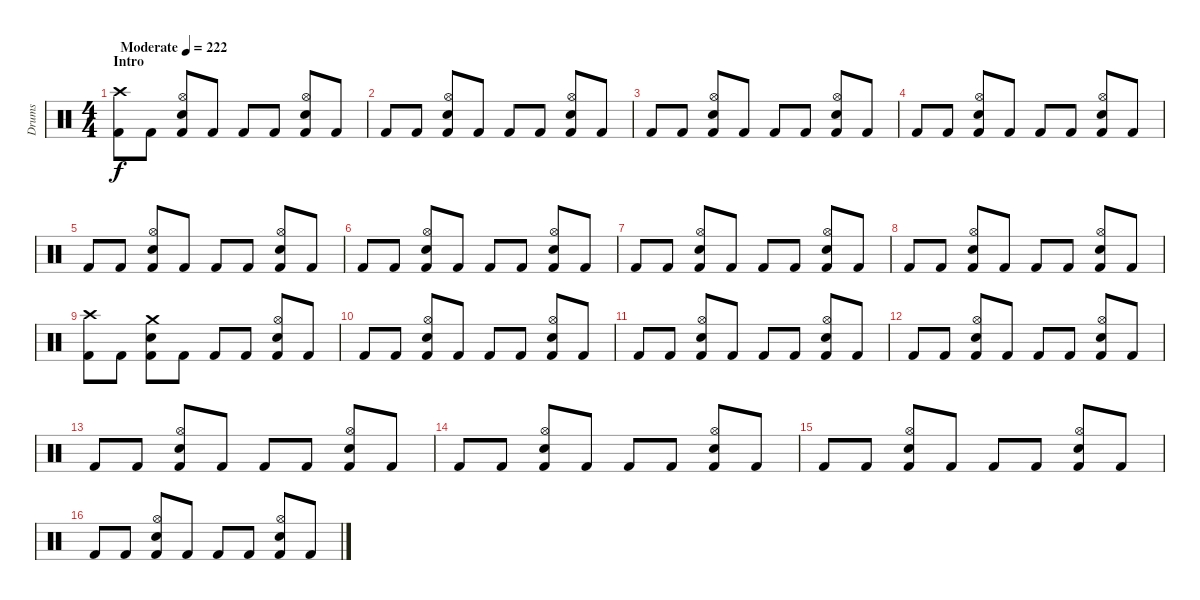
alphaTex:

\track ("Drums" "Drums") {instrument percussion}
\staff {score}
\articulation defaults
\ts (4 4)
\section ("" "Intro")
\tempo (222 "Moderate")
\clef neutral
\ks c
("Crash high (hit)" "Kick (hit) 2").8{dy f} "Kick (hit) 2".8 ("Hi-Hat (open)" "Snare (hit) 2" "Kick (hit) 2").8 "Kick (hit) 2".8 "Kick (hit) 2".8 "Kick (hit) 2".8 ("Hi-Hat (open)" "Snare (hit) 2" "Kick (hit) 2").8 "Kick (hit) 2".8 |
"Kick (hit) 2".8 "Kick (hit) 2".8 ("Hi-Hat (open)" "Snare (hit) 2" "Kick (hit) 2").8 "Kick (hit) 2".8 "Kick (hit) 2".8 "Kick (hit) 2".8 ("Hi-Hat (open)" "Snare (hit) 2" "Kick (hit) 2").8 "Kick (hit) 2".8 |
"Kick (hit) 2".8 "Kick (hit) 2".8 ("Hi-Hat (open)" "Snare (hit) 2" "Kick (hit) 2").8 "Kick (hit) 2".8 "Kick (hit) 2".8 "Kick (hit) 2".8 ("Hi-Hat (open)" "Snare (hit) 2" "Kick (hit) 2").8 "Kick (hit) 2".8 |
"Kick (hit) 2".8 "Kick (hit) 2".8 ("Hi-Hat (open)" "Snare (hit) 2" "Kick (hit) 2").8 "Kick (hit) 2".8 "Kick (hit) 2".8 "Kick (hit) 2".8 ("Hi-Hat (open)" "Snare (hit) 2" "Kick (hit) 2").8 "Kick (hit) 2".8 |
"Kick (hit) 2".8 "Kick (hit) 2".8 ("Hi-Hat (open)" "Snare (hit) 2" "Kick (hit) 2").8 "Kick (hit) 2".8 "Kick (hit) 2".8 "Kick (hit) 2".8 ("Hi-Hat (open)" "Snare (hit) 2" "Kick (hit) 2").8 "Kick (hit) 2".8 |
"Kick (hit) 2".8 "Kick (hit) 2".8 ("Hi-Hat (open)" "Snare (hit) 2" "Kick (hit) 2").8 "Kick (hit) 2".8 "Kick (hit) 2".8 "Kick (hit) 2".8 ("Hi-Hat (open)" "Snare (hit) 2" "Kick (hit) 2").8 "Kick (hit) 2".8 |
"Kick (hit) 2".8 "Kick (hit) 2".8 ("Hi-Hat (open)" "Snare (hit) 2" "Kick (hit) 2").8 "Kick (hit) 2".8 "Kick (hit) 2".8 "Kick (hit) 2".8 ("Hi-Hat (open)" "Snare (hit) 2" "Kick (hit) 2").8 "Kick (hit) 2".8 |
"Kick (hit) 2".8 "Kick (hit) 2".8 ("Hi-Hat (open)" "Snare (hit) 2" "Kick (hit) 2").8 "Kick (hit) 2".8 "Kick (hit) 2".8 "Kick (hit) 2".8 ("Hi-Hat (open)" "Snare (hit) 2" "Kick (hit) 2").8 "Kick (hit) 2".8 |
("Crash high (hit)" "Kick (hit) 2").8 "Kick (hit) 2".8 ("Crash medium (hit)" "Snare (hit) 2" "Kick (hit) 2").8 "Kick (hit) 2".8 "Kick (hit) 2".8 "Kick (hit) 2".8 ("Hi-Hat (open)" "Snare (hit) 2" "Kick (hit) 2").8 "Kick (hit) 2".8 |
"Kick (hit) 2".8 "Kick (hit) 2".8 ("Hi-Hat (open)" "Snare (hit) 2" "Kick (hit) 2").8 "Kick (hit) 2".8 "Kick (hit) 2".8 "Kick (hit) 2".8 ("Hi-Hat (open)" "Snare (hit) 2" "Kick (hit) 2").8 "Kick (hit) 2".8 |
"Kick (hit) 2".8 "Kick (hit) 2".8 ("Hi-Hat (open)" "Snare (hit) 2" "Kick (hit) 2").8 "Kick (hit) 2".8 "Kick (hit) 2".8 "Kick (hit) 2".8 ("Hi-Hat (open)" "Snare (hit) 2" "Kick (hit) 2").8 "Kick (hit) 2".8 |
"Kick (hit) 2".8 "Kick (hit) 2".8 ("Hi-Hat (open)" "Snare (hit) 2" "Kick (hit) 2").8 "Kick (hit) 2".8 "Kick (hit) 2".8 "Kick (hit) 2".8 ("Hi-Hat (open)" "Snare (hit) 2" "Kick (hit) 2").8 "Kick (hit) 2".8 |
"Kick (hit) 2".8 "Kick (hit) 2".8 ("Hi-Hat (open)" "Snare (hit) 2" "Kick (hit) 2").8 "Kick (hit) 2".8 "Kick (hit) 2".8 "Kick (hit) 2".8 ("Hi-Hat (open)" "Snare (hit) 2" "Kick (hit) 2").8 "Kick (hit) 2".8 |
"Kick (hit) 2".8 "Kick (hit) 2".8 ("Hi-Hat (open)" "Snare (hit) 2" "Kick (hit) 2").8 "Kick (hit) 2".8 "Kick (hit) 2".8 "Kick (hit) 2".8 ("Hi-Hat (open)" "Snare (hit) 2" "Kick (hit) 2").8 "Kick (hit) 2".8 |
"Kick (hit) 2".8 "Kick (hit) 2".8 ("Hi-Hat (open)" "Snare (hit) 2" "Kick (hit) 2").8 "Kick (hit) 2".8 "Kick (hit) 2".8 "Kick (hit) 2".8 ("Hi-Hat (open)" "Snare (hit) 2" "Kick (hit) 2").8 "Kick (hit) 2".8 |
"Kick (hit) 2".8 "Kick (hit) 2".8 ("Hi-Hat (open)" "Snare (hit) 2" "Kick (hit) 2").8 "Kick (hit) 2".8 "Kick (hit) 2".8 "Kick (hit) 2".8 ("Hi-Hat (open)" "Snare (hit) 2" "Kick (hit) 2").8 "Kick (hit) 2".8
